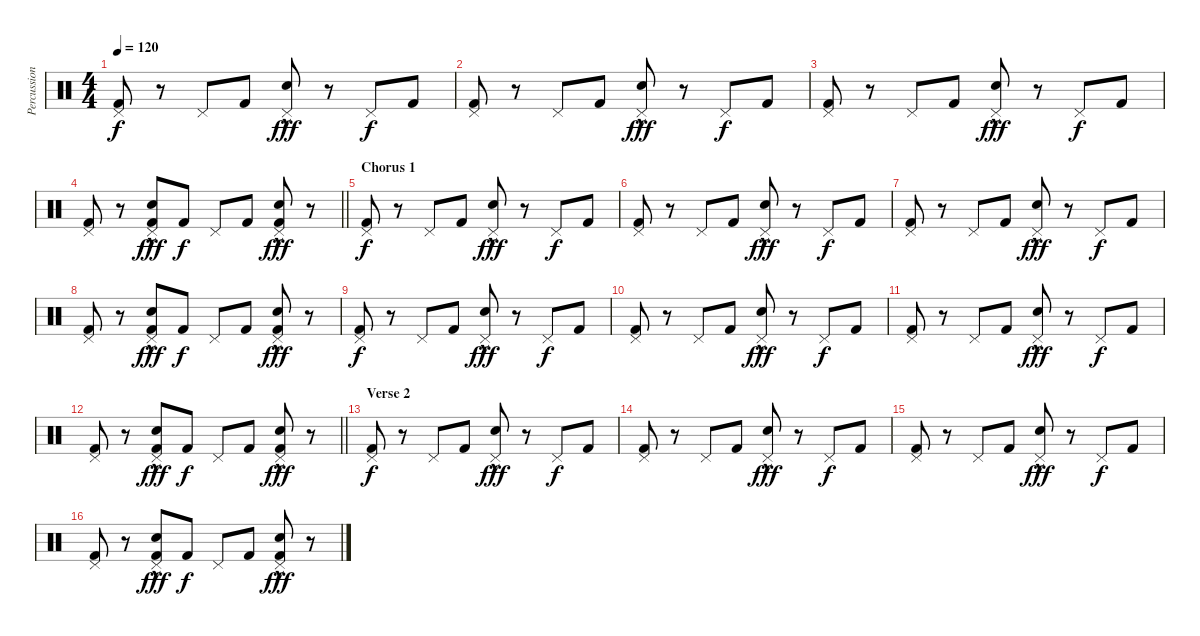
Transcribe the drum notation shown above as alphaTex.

\track ("Percussion" "Percussion") {instrument percussion}
\staff {score}
\articulation defaults
\ts (4 4)
\tempo 120
\clef neutral
\ks c
("Kick (hit) 2" "Pedal Hi-Hat (hit)").8{dy f} r.8 "Pedal Hi-Hat (hit)".8 "Kick (hit) 2".8 ("Snare (hit) 2"{hac} "Pedal Hi-Hat (hit)").8{dy fff} r.8 "Pedal Hi-Hat (hit)".8{dy f} "Kick (hit) 2".8 |
("Kick (hit) 2" "Pedal Hi-Hat (hit)").8 r.8 "Pedal Hi-Hat (hit)".8 "Kick (hit) 2".8 ("Snare (hit) 2"{hac} "Pedal Hi-Hat (hit)").8{dy fff} r.8 "Pedal Hi-Hat (hit)".8{dy f} "Kick (hit) 2".8 |
("Kick (hit) 2" "Pedal Hi-Hat (hit)").8 r.8 "Pedal Hi-Hat (hit)".8 "Kick (hit) 2".8 ("Snare (hit) 2"{hac} "Pedal Hi-Hat (hit)").8{dy fff} r.8 "Pedal Hi-Hat (hit)".8{dy f} "Kick (hit) 2".8 |
\barLineRight lightlight
("Kick (hit) 2" "Pedal Hi-Hat (hit)").8 r.8 ("Kick (hit) 2" "Snare (hit) 2"{hac} "Pedal Hi-Hat (hit)").8{dy fff} "Kick (hit) 2".8{dy f} "Pedal Hi-Hat (hit)".8 "Kick (hit) 2".8 ("Kick (hit) 2" "Snare (hit) 2"{hac} "Pedal Hi-Hat (hit)").8{dy fff} r.8 |
\section ("" "Chorus 1")
("Kick (hit) 2" "Pedal Hi-Hat (hit)").8{dy f} r.8 "Pedal Hi-Hat (hit)".8 "Kick (hit) 2".8 ("Snare (hit) 2"{hac} "Pedal Hi-Hat (hit)").8{dy fff} r.8 "Pedal Hi-Hat (hit)".8{dy f} "Kick (hit) 2".8 |
("Kick (hit) 2" "Pedal Hi-Hat (hit)").8 r.8 "Pedal Hi-Hat (hit)".8 "Kick (hit) 2".8 ("Snare (hit) 2"{hac} "Pedal Hi-Hat (hit)").8{dy fff} r.8 "Pedal Hi-Hat (hit)".8{dy f} "Kick (hit) 2".8 |
("Kick (hit) 2" "Pedal Hi-Hat (hit)").8 r.8 "Pedal Hi-Hat (hit)".8 "Kick (hit) 2".8 ("Snare (hit) 2"{hac} "Pedal Hi-Hat (hit)").8{dy fff} r.8 "Pedal Hi-Hat (hit)".8{dy f} "Kick (hit) 2".8 |
("Kick (hit) 2" "Pedal Hi-Hat (hit)").8 r.8 ("Kick (hit) 2" "Snare (hit) 2"{hac} "Pedal Hi-Hat (hit)").8{dy fff} "Kick (hit) 2".8{dy f} "Pedal Hi-Hat (hit)".8 "Kick (hit) 2".8 ("Kick (hit) 2" "Snare (hit) 2"{hac} "Pedal Hi-Hat (hit)").8{dy fff} r.8 |
("Kick (hit) 2" "Pedal Hi-Hat (hit)").8{dy f} r.8 "Pedal Hi-Hat (hit)".8 "Kick (hit) 2".8 ("Snare (hit) 2"{hac} "Pedal Hi-Hat (hit)").8{dy fff} r.8 "Pedal Hi-Hat (hit)".8{dy f} "Kick (hit) 2".8 |
("Kick (hit) 2" "Pedal Hi-Hat (hit)").8 r.8 "Pedal Hi-Hat (hit)".8 "Kick (hit) 2".8 ("Snare (hit) 2"{hac} "Pedal Hi-Hat (hit)").8{dy fff} r.8 "Pedal Hi-Hat (hit)".8{dy f} "Kick (hit) 2".8 |
("Kick (hit) 2" "Pedal Hi-Hat (hit)").8 r.8 "Pedal Hi-Hat (hit)".8 "Kick (hit) 2".8 ("Snare (hit) 2"{hac} "Pedal Hi-Hat (hit)").8{dy fff} r.8 "Pedal Hi-Hat (hit)".8{dy f} "Kick (hit) 2".8 |
\barLineRight lightlight
("Kick (hit) 2" "Pedal Hi-Hat (hit)").8 r.8 ("Kick (hit) 2" "Snare (hit) 2"{hac} "Pedal Hi-Hat (hit)").8{dy fff} "Kick (hit) 2".8{dy f} "Pedal Hi-Hat (hit)".8 "Kick (hit) 2".8 ("Kick (hit) 2" "Snare (hit) 2"{hac} "Pedal Hi-Hat (hit)").8{dy fff} r.8 |
\section ("" "Verse 2")
("Kick (hit) 2" "Pedal Hi-Hat (hit)").8{dy f} r.8 "Pedal Hi-Hat (hit)".8 "Kick (hit) 2".8 ("Snare (hit) 2"{hac} "Pedal Hi-Hat (hit)").8{dy fff} r.8 "Pedal Hi-Hat (hit)".8{dy f} "Kick (hit) 2".8 |
("Kick (hit) 2" "Pedal Hi-Hat (hit)").8 r.8 "Pedal Hi-Hat (hit)".8 "Kick (hit) 2".8 ("Snare (hit) 2"{hac} "Pedal Hi-Hat (hit)").8{dy fff} r.8 "Pedal Hi-Hat (hit)".8{dy f} "Kick (hit) 2".8 |
("Kick (hit) 2" "Pedal Hi-Hat (hit)").8 r.8 "Pedal Hi-Hat (hit)".8 "Kick (hit) 2".8 ("Snare (hit) 2"{hac} "Pedal Hi-Hat (hit)").8{dy fff} r.8 "Pedal Hi-Hat (hit)".8{dy f} "Kick (hit) 2".8 |
("Kick (hit) 2" "Pedal Hi-Hat (hit)").8 r.8 ("Kick (hit) 2" "Snare (hit) 2"{hac} "Pedal Hi-Hat (hit)").8{dy fff} "Kick (hit) 2".8{dy f} "Pedal Hi-Hat (hit)".8 "Kick (hit) 2".8 ("Kick (hit) 2" "Snare (hit) 2"{hac} "Pedal Hi-Hat (hit)").8{dy fff} r.8
